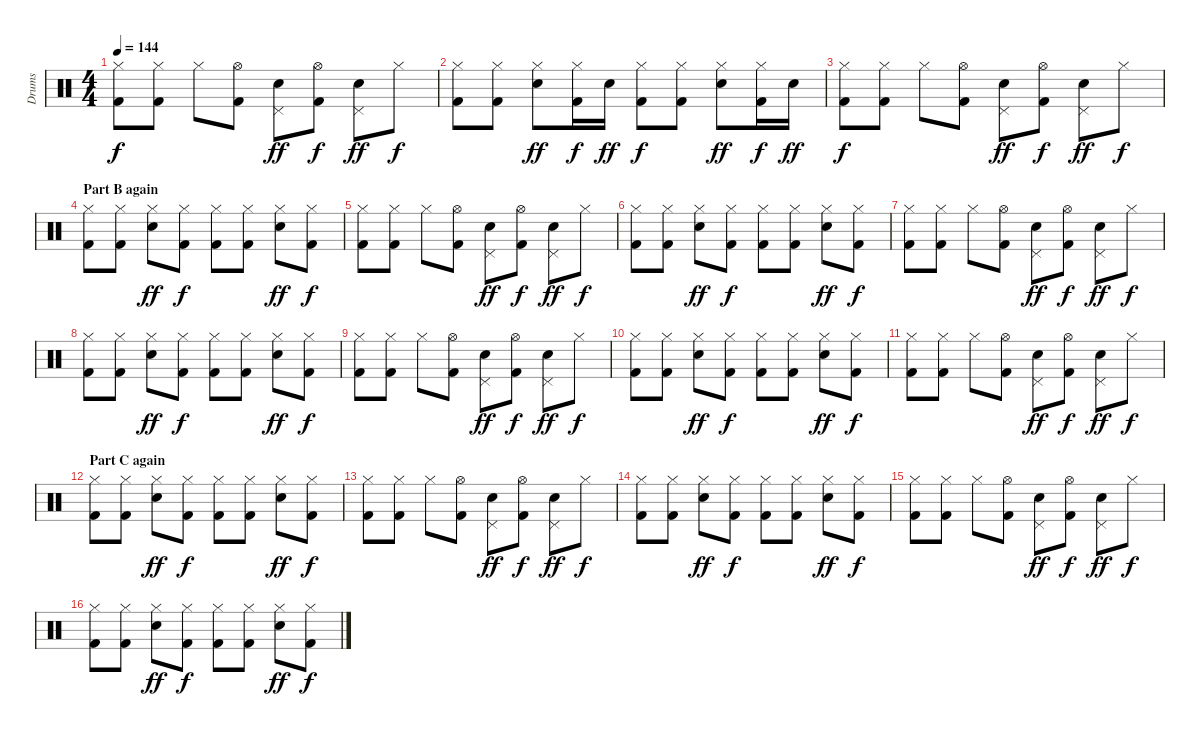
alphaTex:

\track ("Drums" "Drums") {instrument percussion}
\staff {score}
\articulation defaults
\ts (4 4)
\tempo 144
\clef neutral
\ks c
("Hi-Hat (closed)" "Kick (hit) 2").8{dy f} ("Hi-Hat (closed)" "Kick (hit) 2").8 "Hi-Hat (closed)".8 ("Hi-Hat (open)" "Kick (hit) 2").8 ("Pedal Hi-Hat (hit)" "Electric Snare (hit)").8{dy ff} ("Hi-Hat (open)" "Kick (hit) 2").8{dy f} ("Pedal Hi-Hat (hit)" "Electric Snare (hit)").8{dy ff} "Hi-Hat (closed)".8{dy f} |
("Hi-Hat (closed)" "Kick (hit) 2").8 ("Hi-Hat (closed)" "Kick (hit) 2").8 ("Hi-Hat (closed)" "Electric Snare (hit)").8{dy ff} ("Hi-Hat (closed)" "Kick (hit) 2").16{dy f} "Electric Snare (hit)".16{dy ff} ("Hi-Hat (closed)" "Kick (hit) 2").8{dy f} ("Hi-Hat (closed)" "Kick (hit) 2").8 ("Hi-Hat (closed)" "Electric Snare (hit)").8{dy ff} ("Hi-Hat (closed)" "Kick (hit) 2").16{dy f} "Electric Snare (hit)".16{dy ff} |
("Hi-Hat (closed)" "Kick (hit) 2").8{dy f} ("Hi-Hat (closed)" "Kick (hit) 2").8 "Hi-Hat (closed)".8 ("Hi-Hat (open)" "Kick (hit) 2").8 ("Pedal Hi-Hat (hit)" "Electric Snare (hit)").8{dy ff} ("Hi-Hat (open)" "Kick (hit) 2").8{dy f} ("Pedal Hi-Hat (hit)" "Electric Snare (hit)").8{dy ff} "Hi-Hat (closed)".8{dy f} |
\section ("" "Part B again")
("Hi-Hat (closed)" "Kick (hit) 2").8 ("Hi-Hat (closed)" "Kick (hit) 2").8 ("Hi-Hat (closed)" "Electric Snare (hit)").8{dy ff} ("Hi-Hat (closed)" "Kick (hit) 2").8{dy f} ("Hi-Hat (closed)" "Kick (hit) 2").8 ("Hi-Hat (closed)" "Kick (hit) 2").8 ("Hi-Hat (closed)" "Electric Snare (hit)").8{dy ff} ("Hi-Hat (closed)" "Kick (hit) 2").8{dy f} |
("Hi-Hat (closed)" "Kick (hit) 2").8 ("Hi-Hat (closed)" "Kick (hit) 2").8 "Hi-Hat (closed)".8 ("Hi-Hat (open)" "Kick (hit) 2").8 ("Pedal Hi-Hat (hit)" "Electric Snare (hit)").8{dy ff} ("Hi-Hat (open)" "Kick (hit) 2").8{dy f} ("Pedal Hi-Hat (hit)" "Electric Snare (hit)").8{dy ff} "Hi-Hat (closed)".8{dy f} |
("Hi-Hat (closed)" "Kick (hit) 2").8 ("Hi-Hat (closed)" "Kick (hit) 2").8 ("Hi-Hat (closed)" "Electric Snare (hit)").8{dy ff} ("Hi-Hat (closed)" "Kick (hit) 2").8{dy f} ("Hi-Hat (closed)" "Kick (hit) 2").8 ("Hi-Hat (closed)" "Kick (hit) 2").8 ("Hi-Hat (closed)" "Electric Snare (hit)").8{dy ff} ("Hi-Hat (closed)" "Kick (hit) 2").8{dy f} |
("Hi-Hat (closed)" "Kick (hit) 2").8 ("Hi-Hat (closed)" "Kick (hit) 2").8 "Hi-Hat (closed)".8 ("Hi-Hat (open)" "Kick (hit) 2").8 ("Pedal Hi-Hat (hit)" "Electric Snare (hit)").8{dy ff} ("Hi-Hat (open)" "Kick (hit) 2").8{dy f} ("Pedal Hi-Hat (hit)" "Electric Snare (hit)").8{dy ff} "Hi-Hat (closed)".8{dy f} |
("Hi-Hat (closed)" "Kick (hit) 2").8 ("Hi-Hat (closed)" "Kick (hit) 2").8 ("Hi-Hat (closed)" "Electric Snare (hit)").8{dy ff} ("Hi-Hat (closed)" "Kick (hit) 2").8{dy f} ("Hi-Hat (closed)" "Kick (hit) 2").8 ("Hi-Hat (closed)" "Kick (hit) 2").8 ("Hi-Hat (closed)" "Electric Snare (hit)").8{dy ff} ("Hi-Hat (closed)" "Kick (hit) 2").8{dy f} |
("Hi-Hat (closed)" "Kick (hit) 2").8 ("Hi-Hat (closed)" "Kick (hit) 2").8 "Hi-Hat (closed)".8 ("Hi-Hat (open)" "Kick (hit) 2").8 ("Pedal Hi-Hat (hit)" "Electric Snare (hit)").8{dy ff} ("Hi-Hat (open)" "Kick (hit) 2").8{dy f} ("Pedal Hi-Hat (hit)" "Electric Snare (hit)").8{dy ff} "Hi-Hat (closed)".8{dy f} |
("Hi-Hat (closed)" "Kick (hit) 2").8 ("Hi-Hat (closed)" "Kick (hit) 2").8 ("Hi-Hat (closed)" "Electric Snare (hit)").8{dy ff} ("Hi-Hat (closed)" "Kick (hit) 2").8{dy f} ("Hi-Hat (closed)" "Kick (hit) 2").8 ("Hi-Hat (closed)" "Kick (hit) 2").8 ("Hi-Hat (closed)" "Electric Snare (hit)").8{dy ff} ("Hi-Hat (closed)" "Kick (hit) 2").8{dy f} |
("Hi-Hat (closed)" "Kick (hit) 2").8 ("Hi-Hat (closed)" "Kick (hit) 2").8 "Hi-Hat (closed)".8 ("Hi-Hat (open)" "Kick (hit) 2").8 ("Pedal Hi-Hat (hit)" "Electric Snare (hit)").8{dy ff} ("Hi-Hat (open)" "Kick (hit) 2").8{dy f} ("Pedal Hi-Hat (hit)" "Electric Snare (hit)").8{dy ff} "Hi-Hat (closed)".8{dy f} |
\section ("" "Part C again")
("Hi-Hat (closed)" "Kick (hit) 2").8 ("Hi-Hat (closed)" "Kick (hit) 2").8 ("Hi-Hat (closed)" "Electric Snare (hit)").8{dy ff} ("Hi-Hat (closed)" "Kick (hit) 2").8{dy f} ("Hi-Hat (closed)" "Kick (hit) 2").8 ("Hi-Hat (closed)" "Kick (hit) 2").8 ("Hi-Hat (closed)" "Electric Snare (hit)").8{dy ff} ("Hi-Hat (closed)" "Kick (hit) 2").8{dy f} |
("Hi-Hat (closed)" "Kick (hit) 2").8 ("Hi-Hat (closed)" "Kick (hit) 2").8 "Hi-Hat (closed)".8 ("Hi-Hat (open)" "Kick (hit) 2").8 ("Pedal Hi-Hat (hit)" "Electric Snare (hit)").8{dy ff} ("Hi-Hat (open)" "Kick (hit) 2").8{dy f} ("Pedal Hi-Hat (hit)" "Electric Snare (hit)").8{dy ff} "Hi-Hat (closed)".8{dy f} |
("Hi-Hat (closed)" "Kick (hit) 2").8 ("Hi-Hat (closed)" "Kick (hit) 2").8 ("Hi-Hat (closed)" "Electric Snare (hit)").8{dy ff} ("Hi-Hat (closed)" "Kick (hit) 2").8{dy f} ("Hi-Hat (closed)" "Kick (hit) 2").8 ("Hi-Hat (closed)" "Kick (hit) 2").8 ("Hi-Hat (closed)" "Electric Snare (hit)").8{dy ff} ("Hi-Hat (closed)" "Kick (hit) 2").8{dy f} |
("Hi-Hat (closed)" "Kick (hit) 2").8 ("Hi-Hat (closed)" "Kick (hit) 2").8 "Hi-Hat (closed)".8 ("Hi-Hat (open)" "Kick (hit) 2").8 ("Pedal Hi-Hat (hit)" "Electric Snare (hit)").8{dy ff} ("Hi-Hat (open)" "Kick (hit) 2").8{dy f} ("Pedal Hi-Hat (hit)" "Electric Snare (hit)").8{dy ff} "Hi-Hat (closed)".8{dy f} |
("Hi-Hat (closed)" "Kick (hit) 2").8 ("Hi-Hat (closed)" "Kick (hit) 2").8 ("Hi-Hat (closed)" "Electric Snare (hit)").8{dy ff} ("Hi-Hat (closed)" "Kick (hit) 2").8{dy f} ("Hi-Hat (closed)" "Kick (hit) 2").8 ("Hi-Hat (closed)" "Kick (hit) 2").8 ("Hi-Hat (closed)" "Electric Snare (hit)").8{dy ff} ("Hi-Hat (closed)" "Kick (hit) 2").8{dy f}
